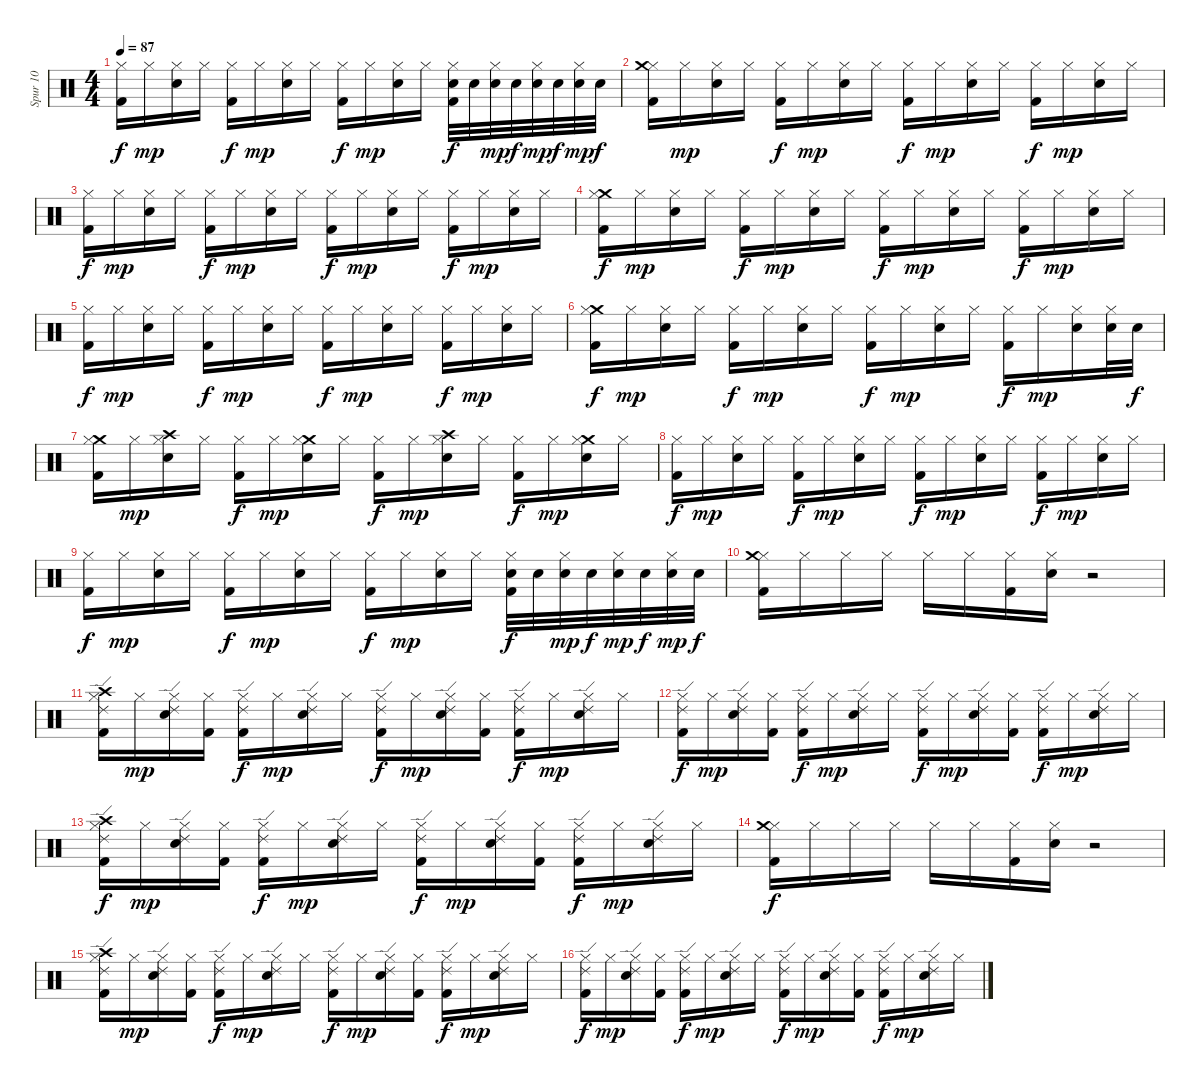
\track ("Spur 10" "Spur 10") {instrument percussion}
\staff {score}
\articulation defaults
\ts (4 4)
\tempo 87
\clef neutral
\ks c
("Hi-Hat (closed)" "Kick (hit) 2").16{dy f} "Hi-Hat (closed)".16{dy mp} ("Hi-Hat (closed)" "Electric Snare (hit)").16 "Hi-Hat (closed)".16 ("Hi-Hat (closed)" "Kick (hit) 2").16{dy f} "Hi-Hat (closed)".16{dy mp} ("Hi-Hat (closed)" "Electric Snare (hit)").16 "Hi-Hat (closed)".16 ("Hi-Hat (closed)" "Kick (hit) 2").16{dy f} "Hi-Hat (closed)".16{dy mp} ("Hi-Hat (closed)" "Electric Snare (hit)").16 "Hi-Hat (closed)".16 ("Electric Snare (hit)" "Hi-Hat (closed)" "Kick (hit) 2").32{dy f} "Electric Snare (hit)".32 ("Electric Snare (hit)" "Hi-Hat (closed)").32{dy mp} "Electric Snare (hit)".32{dy f} ("Hi-Hat (closed)" "Electric Snare (hit)").32{dy mp} "Electric Snare (hit)".32{dy f} ("Electric Snare (hit)" "Hi-Hat (closed)").32{dy mp} "Electric Snare (hit)".32{dy f} |
("Hi-Hat (closed)" "Crash medium (hit)" "Kick (hit) 2").16 "Hi-Hat (closed)".16{dy mp} ("Hi-Hat (closed)" "Electric Snare (hit)").16 "Hi-Hat (closed)".16 ("Hi-Hat (closed)" "Kick (hit) 2").16{dy f} "Hi-Hat (closed)".16{dy mp} ("Hi-Hat (closed)" "Electric Snare (hit)").16 "Hi-Hat (closed)".16 ("Hi-Hat (closed)" "Kick (hit) 2").16{dy f} "Hi-Hat (closed)".16{dy mp} ("Hi-Hat (closed)" "Electric Snare (hit)").16 "Hi-Hat (closed)".16 ("Hi-Hat (closed)" "Kick (hit) 2").16{dy f} "Hi-Hat (closed)".16{dy mp} ("Hi-Hat (closed)" "Electric Snare (hit)").16 "Hi-Hat (closed)".16 |
("Hi-Hat (closed)" "Kick (hit) 2").16{dy f} "Hi-Hat (closed)".16{dy mp} ("Hi-Hat (closed)" "Electric Snare (hit)").16 "Hi-Hat (closed)".16 ("Hi-Hat (closed)" "Kick (hit) 2").16{dy f} "Hi-Hat (closed)".16{dy mp} ("Hi-Hat (closed)" "Electric Snare (hit)").16 "Hi-Hat (closed)".16 ("Hi-Hat (closed)" "Kick (hit) 2").16{dy f} "Hi-Hat (closed)".16{dy mp} ("Hi-Hat (closed)" "Electric Snare (hit)").16 "Hi-Hat (closed)".16 ("Hi-Hat (closed)" "Kick (hit) 2").16{dy f} "Hi-Hat (closed)".16{dy mp} ("Hi-Hat (closed)" "Electric Snare (hit)").16 "Hi-Hat (closed)".16 |
("Crash medium (hit)" "Hi-Hat (closed)" "Kick (hit) 2").16{dy f} "Hi-Hat (closed)".16{dy mp} ("Hi-Hat (closed)" "Electric Snare (hit)").16 "Hi-Hat (closed)".16 ("Hi-Hat (closed)" "Kick (hit) 2").16{dy f} "Hi-Hat (closed)".16{dy mp} ("Hi-Hat (closed)" "Electric Snare (hit)").16 "Hi-Hat (closed)".16 ("Hi-Hat (closed)" "Kick (hit) 2").16{dy f} "Hi-Hat (closed)".16{dy mp} ("Hi-Hat (closed)" "Electric Snare (hit)").16 "Hi-Hat (closed)".16 ("Hi-Hat (closed)" "Kick (hit) 2").16{dy f} "Hi-Hat (closed)".16{dy mp} ("Hi-Hat (closed)" "Electric Snare (hit)").16 "Hi-Hat (closed)".16 |
("Hi-Hat (closed)" "Kick (hit) 2").16{dy f} "Hi-Hat (closed)".16{dy mp} ("Hi-Hat (closed)" "Electric Snare (hit)").16 "Hi-Hat (closed)".16 ("Hi-Hat (closed)" "Kick (hit) 2").16{dy f} "Hi-Hat (closed)".16{dy mp} ("Hi-Hat (closed)" "Electric Snare (hit)").16 "Hi-Hat (closed)".16 ("Hi-Hat (closed)" "Kick (hit) 2").16{dy f} "Hi-Hat (closed)".16{dy mp} ("Hi-Hat (closed)" "Electric Snare (hit)").16 "Hi-Hat (closed)".16 ("Hi-Hat (closed)" "Kick (hit) 2").16{dy f} "Hi-Hat (closed)".16{dy mp} ("Hi-Hat (closed)" "Electric Snare (hit)").16 "Hi-Hat (closed)".16 |
("Crash medium (hit)" "Hi-Hat (closed)" "Kick (hit) 2").16{dy f} "Hi-Hat (closed)".16{dy mp} ("Hi-Hat (closed)" "Electric Snare (hit)").16 "Hi-Hat (closed)".16 ("Hi-Hat (closed)" "Kick (hit) 2").16{dy f} "Hi-Hat (closed)".16{dy mp} ("Hi-Hat (closed)" "Electric Snare (hit)").16 "Hi-Hat (closed)".16 ("Hi-Hat (closed)" "Kick (hit) 2").16{dy f} "Hi-Hat (closed)".16{dy mp} ("Hi-Hat (closed)" "Electric Snare (hit)").16 "Hi-Hat (closed)".16 ("Hi-Hat (closed)" "Kick (hit) 2").16{dy f} "Hi-Hat (closed)".16{dy mp} ("Electric Snare (hit)" "Hi-Hat (closed)").16 ("Electric Snare (hit)" "Hi-Hat (closed)").32 "Electric Snare (hit)".32{dy f} |
("Crash medium (hit)" "Hi-Hat (closed)" "Kick (hit) 2").16 "Hi-Hat (closed)".16{dy mp} ("Crash high (hit)" "Hi-Hat (closed)" "Electric Snare (hit)").16 "Hi-Hat (closed)".16 ("Hi-Hat (closed)" "Kick (hit) 2").16{dy f} "Hi-Hat (closed)".16{dy mp} ("Crash medium (hit)" "Hi-Hat (closed)" "Electric Snare (hit)").16 "Hi-Hat (closed)".16 ("Hi-Hat (closed)" "Kick (hit) 2").16{dy f} "Hi-Hat (closed)".16{dy mp} ("Crash high (hit)" "Hi-Hat (closed)" "Electric Snare (hit)").16 "Hi-Hat (closed)".16 ("Hi-Hat (closed)" "Kick (hit) 2").16{dy f} "Hi-Hat (closed)".16{dy mp} ("Crash medium (hit)" "Hi-Hat (closed)" "Electric Snare (hit)").16 "Hi-Hat (closed)".16 |
("Hi-Hat (closed)" "Kick (hit) 2").16{dy f} "Hi-Hat (closed)".16{dy mp} ("Hi-Hat (closed)" "Electric Snare (hit)").16 "Hi-Hat (closed)".16 ("Hi-Hat (closed)" "Kick (hit) 2").16{dy f} "Hi-Hat (closed)".16{dy mp} ("Hi-Hat (closed)" "Electric Snare (hit)").16 "Hi-Hat (closed)".16 ("Hi-Hat (closed)" "Kick (hit) 2").16{dy f} "Hi-Hat (closed)".16{dy mp} ("Hi-Hat (closed)" "Electric Snare (hit)").16 "Hi-Hat (closed)".16 ("Hi-Hat (closed)" "Kick (hit) 2").16{dy f} "Hi-Hat (closed)".16{dy mp} ("Hi-Hat (closed)" "Electric Snare (hit)").16 "Hi-Hat (closed)".16 |
("Hi-Hat (closed)" "Kick (hit) 2").16{dy f} "Hi-Hat (closed)".16{dy mp} ("Hi-Hat (closed)" "Electric Snare (hit)").16 "Hi-Hat (closed)".16 ("Hi-Hat (closed)" "Kick (hit) 2").16{dy f} "Hi-Hat (closed)".16{dy mp} ("Hi-Hat (closed)" "Electric Snare (hit)").16 "Hi-Hat (closed)".16 ("Hi-Hat (closed)" "Kick (hit) 2").16{dy f} "Hi-Hat (closed)".16{dy mp} ("Hi-Hat (closed)" "Electric Snare (hit)").16 "Hi-Hat (closed)".16 ("Electric Snare (hit)" "Hi-Hat (closed)" "Kick (hit) 2").32{dy f} "Electric Snare (hit)".32 ("Electric Snare (hit)" "Hi-Hat (closed)").32{dy mp} "Electric Snare (hit)".32{dy f} ("Hi-Hat (closed)" "Electric Snare (hit)").32{dy mp} "Electric Snare (hit)".32{dy f} ("Electric Snare (hit)" "Hi-Hat (closed)").32{dy mp} "Electric Snare (hit)".32{dy f} |
("Hi-Hat (closed)" "Crash medium (hit)" "Kick (hit) 2").16 "Hi-Hat (closed)".16 "Hi-Hat (closed)".16 "Hi-Hat (closed)".16 "Hi-Hat (closed)".16 "Hi-Hat (closed)".16 ("Hi-Hat (closed)" "Kick (hit) 2").16 ("Hi-Hat (closed)" "Electric Snare (hit)").16 r.2 |
("Hi-Hat (closed)" "Crash high (hit)" "Ride (edge) 2" "Kick (hit) 2").16 "Hi-Hat (closed)".16{dy mp} ("Hi-Hat (closed)" "Ride (edge) 2" "Electric Snare (hit)").16 ("Kick (hit) 2" "Hi-Hat (closed)").16 ("Hi-Hat (closed)" "Ride (edge) 2" "Kick (hit) 2").16{dy f} "Hi-Hat (closed)".16{dy mp} ("Hi-Hat (closed)" "Electric Snare (hit)" "Ride (edge) 2").16 "Hi-Hat (closed)".16 ("Hi-Hat (closed)" "Ride (edge) 2" "Kick (hit) 2").16{dy f} "Hi-Hat (closed)".16{dy mp} ("Hi-Hat (closed)" "Ride (edge) 2" "Electric Snare (hit)").16 ("Kick (hit) 2" "Hi-Hat (closed)").16 ("Hi-Hat (closed)" "Ride (edge) 2" "Kick (hit) 2").16{dy f} "Hi-Hat (closed)".16{dy mp} ("Hi-Hat (closed)" "Ride (edge) 2" "Electric Snare (hit)").16 "Hi-Hat (closed)".16 |
("Hi-Hat (closed)" "Ride (edge) 2" "Kick (hit) 2").16{dy f} "Hi-Hat (closed)".16{dy mp} ("Hi-Hat (closed)" "Ride (edge) 2" "Electric Snare (hit)").16 ("Kick (hit) 2" "Hi-Hat (closed)").16 ("Hi-Hat (closed)" "Ride (edge) 2" "Kick (hit) 2").16{dy f} "Hi-Hat (closed)".16{dy mp} ("Hi-Hat (closed)" "Electric Snare (hit)" "Ride (edge) 2").16 "Hi-Hat (closed)".16 ("Hi-Hat (closed)" "Ride (edge) 2" "Kick (hit) 2").16{dy f} "Hi-Hat (closed)".16{dy mp} ("Hi-Hat (closed)" "Ride (edge) 2" "Electric Snare (hit)").16 ("Kick (hit) 2" "Hi-Hat (closed)").16 ("Hi-Hat (closed)" "Ride (edge) 2" "Kick (hit) 2").16{dy f} "Hi-Hat (closed)".16{dy mp} ("Hi-Hat (closed)" "Ride (edge) 2" "Electric Snare (hit)").16 "Hi-Hat (closed)".16 |
("Hi-Hat (closed)" "Crash high (hit)" "Ride (edge) 2" "Kick (hit) 2").16{dy f} "Hi-Hat (closed)".16{dy mp} ("Hi-Hat (closed)" "Ride (edge) 2" "Electric Snare (hit)").16 ("Kick (hit) 2" "Hi-Hat (closed)").16 ("Hi-Hat (closed)" "Ride (edge) 2" "Kick (hit) 2").16{dy f} "Hi-Hat (closed)".16{dy mp} ("Hi-Hat (closed)" "Electric Snare (hit)" "Ride (edge) 2").16 "Hi-Hat (closed)".16 ("Hi-Hat (closed)" "Ride (edge) 2" "Kick (hit) 2").16{dy f} "Hi-Hat (closed)".16{dy mp} ("Hi-Hat (closed)" "Ride (edge) 2" "Electric Snare (hit)").16 ("Kick (hit) 2" "Hi-Hat (closed)").16 ("Hi-Hat (closed)" "Ride (edge) 2" "Kick (hit) 2").16{dy f} "Hi-Hat (closed)".16{dy mp} ("Hi-Hat (closed)" "Ride (edge) 2" "Electric Snare (hit)").16 "Hi-Hat (closed)".16 |
("Hi-Hat (closed)" "Crash medium (hit)" "Kick (hit) 2").16{dy f} "Hi-Hat (closed)".16 "Hi-Hat (closed)".16 "Hi-Hat (closed)".16 "Hi-Hat (closed)".16 "Hi-Hat (closed)".16 ("Hi-Hat (closed)" "Kick (hit) 2").16 ("Hi-Hat (closed)" "Electric Snare (hit)").16 r.2 |
("Hi-Hat (closed)" "Crash high (hit)" "Ride (edge) 2" "Kick (hit) 2").16 "Hi-Hat (closed)".16{dy mp} ("Hi-Hat (closed)" "Ride (edge) 2" "Electric Snare (hit)").16 ("Kick (hit) 2" "Hi-Hat (closed)").16 ("Hi-Hat (closed)" "Ride (edge) 2" "Kick (hit) 2").16{dy f} "Hi-Hat (closed)".16{dy mp} ("Hi-Hat (closed)" "Electric Snare (hit)" "Ride (edge) 2").16 "Hi-Hat (closed)".16 ("Hi-Hat (closed)" "Ride (edge) 2" "Kick (hit) 2").16{dy f} "Hi-Hat (closed)".16{dy mp} ("Hi-Hat (closed)" "Ride (edge) 2" "Electric Snare (hit)").16 ("Kick (hit) 2" "Hi-Hat (closed)").16 ("Hi-Hat (closed)" "Ride (edge) 2" "Kick (hit) 2").16{dy f} "Hi-Hat (closed)".16{dy mp} ("Hi-Hat (closed)" "Ride (edge) 2" "Electric Snare (hit)").16 "Hi-Hat (closed)".16 |
("Hi-Hat (closed)" "Ride (edge) 2" "Kick (hit) 2").16{dy f} "Hi-Hat (closed)".16{dy mp} ("Hi-Hat (closed)" "Ride (edge) 2" "Electric Snare (hit)").16 ("Kick (hit) 2" "Hi-Hat (closed)").16 ("Hi-Hat (closed)" "Ride (edge) 2" "Kick (hit) 2").16{dy f} "Hi-Hat (closed)".16{dy mp} ("Hi-Hat (closed)" "Electric Snare (hit)" "Ride (edge) 2").16 "Hi-Hat (closed)".16 ("Hi-Hat (closed)" "Ride (edge) 2" "Kick (hit) 2").16{dy f} "Hi-Hat (closed)".16{dy mp} ("Hi-Hat (closed)" "Ride (edge) 2" "Electric Snare (hit)").16 ("Kick (hit) 2" "Hi-Hat (closed)").16 ("Hi-Hat (closed)" "Ride (edge) 2" "Kick (hit) 2").16{dy f} "Hi-Hat (closed)".16{dy mp} ("Hi-Hat (closed)" "Ride (edge) 2" "Electric Snare (hit)").16 "Hi-Hat (closed)".16
